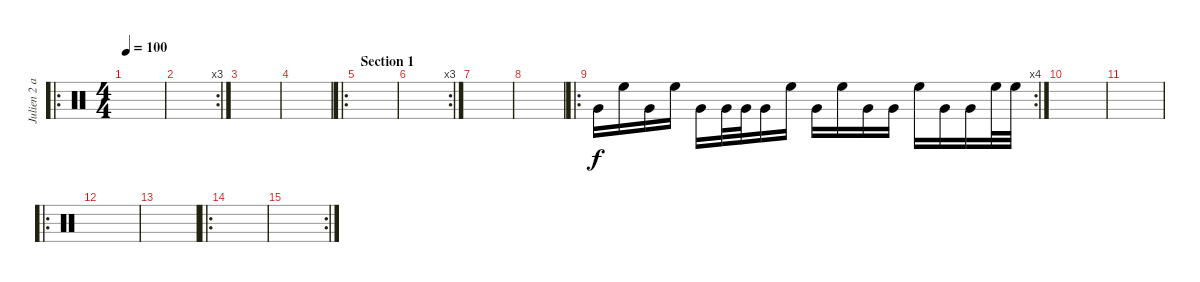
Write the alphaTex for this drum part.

\track ("" "Julien 2 a") {instrument percussion}
\staff {score}
\articulation defaults
\ro
\ts (4 4)
\tempo 100
\clef neutral
\ks c
|
\rc 3
|
|
|
\ro
\section ("" "Section 1")
|
\rc 3
|
|
|
\ro
\rc 4 "Very Low Tom (hit)".16 "High Floor Tom (hit)".16 "Very Low Tom (hit)".16 "High Floor Tom (hit)".16 "Very Low Tom (hit)".16 "Very Low Tom (hit)".32 "Very Low Tom (hit)".32 "Very Low Tom (hit)".16 "High Floor Tom (hit)".16 "Very Low Tom (hit)".16 "High Floor Tom (hit)".16 "Very Low Tom (hit)".16 "Very Low Tom (hit)".16 "High Floor Tom (hit)".16 "Very Low Tom (hit)".16 "Very Low Tom (hit)".16 "High Floor Tom (hit)".32 "High Floor Tom (hit)".32
|
|
|
\ro
|
|
\ro
|
\rc 2
